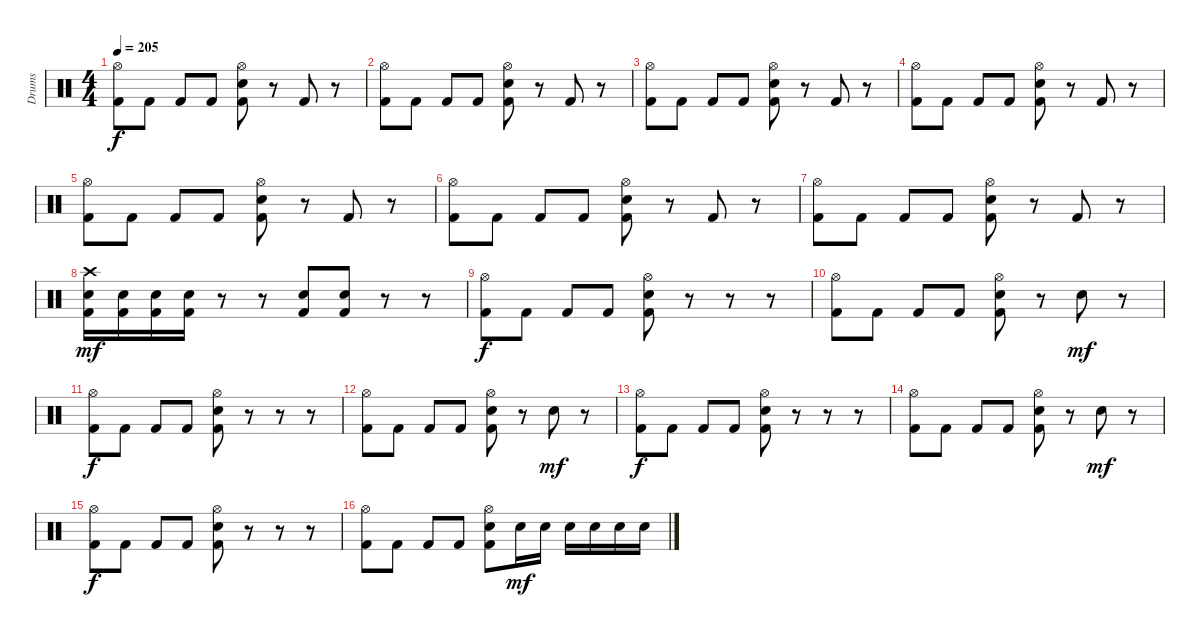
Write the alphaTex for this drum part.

\track ("Drums" "Drums") {instrument percussion}
\staff {score}
\articulation defaults
\ts (4 4)
\tempo 205
\clef neutral
\ks c
("Hi-Hat (open)" "Kick (hit) 2").8{dy f} "Kick (hit) 2".8 "Kick (hit) 2".8 "Kick (hit) 2".8 ("Hi-Hat (open)" "Electric Snare (hit)" "Kick (hit) 2").8 r.8 "Kick (hit) 2".8 r.8 |
("Hi-Hat (open)" "Kick (hit) 2").8 "Kick (hit) 2".8 "Kick (hit) 2".8 "Kick (hit) 2".8 ("Hi-Hat (open)" "Electric Snare (hit)" "Kick (hit) 2").8 r.8 "Kick (hit) 2".8 r.8 |
("Hi-Hat (open)" "Kick (hit) 2").8 "Kick (hit) 2".8 "Kick (hit) 2".8 "Kick (hit) 2".8 ("Hi-Hat (open)" "Electric Snare (hit)" "Kick (hit) 2").8 r.8 "Kick (hit) 2".8 r.8 |
("Hi-Hat (open)" "Kick (hit) 2").8 "Kick (hit) 2".8 "Kick (hit) 2".8 "Kick (hit) 2".8 ("Hi-Hat (open)" "Electric Snare (hit)" "Kick (hit) 2").8 r.8 "Kick (hit) 2".8 r.8 |
("Hi-Hat (open)" "Kick (hit) 2").8 "Kick (hit) 2".8 "Kick (hit) 2".8 "Kick (hit) 2".8 ("Hi-Hat (open)" "Electric Snare (hit)" "Kick (hit) 2").8 r.8 "Kick (hit) 2".8 r.8 |
("Hi-Hat (open)" "Kick (hit) 2").8 "Kick (hit) 2".8 "Kick (hit) 2".8 "Kick (hit) 2".8 ("Hi-Hat (open)" "Electric Snare (hit)" "Kick (hit) 2").8 r.8 "Kick (hit) 2".8 r.8 |
("Hi-Hat (open)" "Kick (hit) 2").8 "Kick (hit) 2".8 "Kick (hit) 2".8 "Kick (hit) 2".8 ("Hi-Hat (open)" "Electric Snare (hit)" "Kick (hit) 2").8 r.8 "Kick (hit) 2".8 r.8 |
("Crash high (hit)" "Electric Snare (hit)" "Kick (hit) 2").16{dy mf} ("Electric Snare (hit)" "Kick (hit) 2").16 ("Electric Snare (hit)" "Kick (hit) 2").16 ("Electric Snare (hit)" "Kick (hit) 2").16 r.8 r.8 ("Electric Snare (hit)" "Kick (hit) 2").8 ("Electric Snare (hit)" "Kick (hit) 2").8 r.8 r.8 |
("Hi-Hat (open)" "Kick (hit) 2").8{dy f} "Kick (hit) 2".8 "Kick (hit) 2".8 "Kick (hit) 2".8 ("Hi-Hat (open)" "Electric Snare (hit)" "Kick (hit) 2").8 r.8 r.8 r.8 |
("Hi-Hat (open)" "Kick (hit) 2").8 "Kick (hit) 2".8 "Kick (hit) 2".8 "Kick (hit) 2".8 ("Hi-Hat (open)" "Electric Snare (hit)" "Kick (hit) 2").8 r.8 "Electric Snare (hit)".8{dy mf} r.8 |
("Hi-Hat (open)" "Kick (hit) 2").8{dy f} "Kick (hit) 2".8 "Kick (hit) 2".8 "Kick (hit) 2".8 ("Hi-Hat (open)" "Electric Snare (hit)" "Kick (hit) 2").8 r.8 r.8 r.8 |
("Hi-Hat (open)" "Kick (hit) 2").8 "Kick (hit) 2".8 "Kick (hit) 2".8 "Kick (hit) 2".8 ("Hi-Hat (open)" "Electric Snare (hit)" "Kick (hit) 2").8 r.8 "Electric Snare (hit)".8{dy mf} r.8 |
("Hi-Hat (open)" "Kick (hit) 2").8{dy f} "Kick (hit) 2".8 "Kick (hit) 2".8 "Kick (hit) 2".8 ("Hi-Hat (open)" "Electric Snare (hit)" "Kick (hit) 2").8 r.8 r.8 r.8 |
("Hi-Hat (open)" "Kick (hit) 2").8 "Kick (hit) 2".8 "Kick (hit) 2".8 "Kick (hit) 2".8 ("Hi-Hat (open)" "Electric Snare (hit)" "Kick (hit) 2").8 r.8 "Electric Snare (hit)".8{dy mf} r.8 |
("Hi-Hat (open)" "Kick (hit) 2").8{dy f} "Kick (hit) 2".8 "Kick (hit) 2".8 "Kick (hit) 2".8 ("Hi-Hat (open)" "Electric Snare (hit)" "Kick (hit) 2").8 r.8 r.8 r.8 |
("Hi-Hat (open)" "Kick (hit) 2").8 "Kick (hit) 2".8 "Kick (hit) 2".8 "Kick (hit) 2".8 ("Hi-Hat (open)" "Electric Snare (hit)" "Kick (hit) 2").8 "Electric Snare (hit)".16{dy mf} "Electric Snare (hit)".16 "Electric Snare (hit)".16 "Electric Snare (hit)".16 "Electric Snare (hit)".16 "Electric Snare (hit)".16
